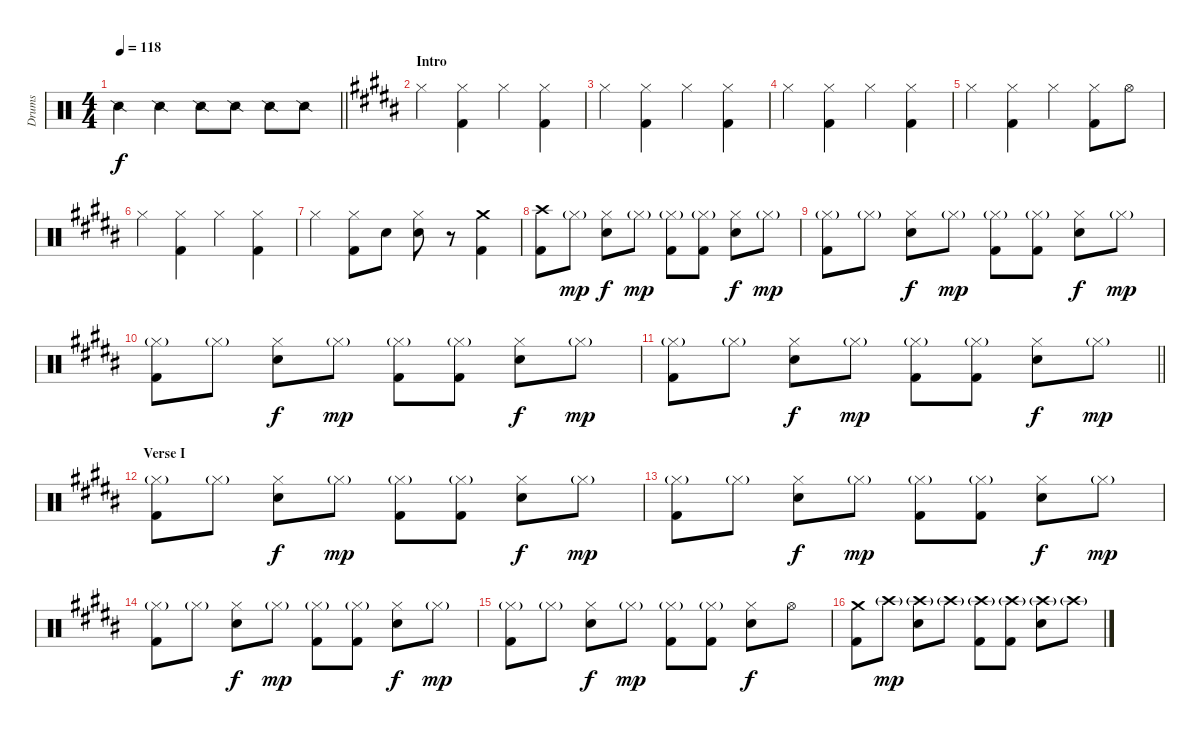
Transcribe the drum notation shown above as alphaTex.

\track ("Drums" "Drums") {instrument percussion}
\staff {score}
\articulation defaults
\ts (4 4)
\tempo 118
\clef neutral
\barLineRight lightlight
\ks c "Snare (side stick) 2".4{dy f} "Snare (side stick) 2".4 "Snare (side stick) 2".8 "Snare (side stick) 2".8 "Snare (side stick) 2".8 "Snare (side stick) 2".8
|
\section ("" "Intro")
\ks b "Hi-Hat (closed)".4
("Hi-Hat (closed)" "Kick (hit) 2").4 "Hi-Hat (closed)".4 ("Hi-Hat (closed)" "Kick (hit) 2").4 |
"Hi-Hat (closed)".4 ("Hi-Hat (closed)" "Kick (hit) 2").4 "Hi-Hat (closed)".4 ("Hi-Hat (closed)" "Kick (hit) 2").4 |
"Hi-Hat (closed)".4 ("Hi-Hat (closed)" "Kick (hit) 2").4 "Hi-Hat (closed)".4 ("Hi-Hat (closed)" "Kick (hit) 2").4 |
"Hi-Hat (closed)".4 ("Hi-Hat (closed)" "Kick (hit) 2").4 "Hi-Hat (closed)".4 ("Hi-Hat (closed)" "Kick (hit) 2").8 "Hi-Hat (open)".8 |
"Hi-Hat (closed)".4 ("Hi-Hat (closed)" "Kick (hit) 2").4 "Hi-Hat (closed)".4 ("Hi-Hat (closed)" "Kick (hit) 2").4 |
"Hi-Hat (closed)".4 ("Hi-Hat (closed)" "Kick (hit) 2").8 "Snare (hit) 2".8 ("Hi-Hat (closed)" "Snare (hit) 2").8 r.8 ("Crash medium (hit)" "Kick (hit) 2").4 |
("Crash high (hit)" "Kick (hit) 2").8 "Hi-Hat (closed)"{g}.8{dy mp} ("Hi-Hat (closed)" "Snare (hit) 2").8{dy f} "Hi-Hat (closed)"{g}.8{dy mp} ("Hi-Hat (closed)"{g} "Kick (hit) 2").8 ("Hi-Hat (closed)"{g} "Kick (hit) 2").8 ("Hi-Hat (closed)" "Snare (hit) 2").8{dy f} "Hi-Hat (closed)"{g}.8{dy mp} |
("Hi-Hat (closed)"{g} "Kick (hit) 2").8 "Hi-Hat (closed)"{g}.8 ("Hi-Hat (closed)" "Snare (hit) 2").8{dy f} "Hi-Hat (closed)"{g}.8{dy mp} ("Hi-Hat (closed)"{g} "Kick (hit) 2").8 ("Hi-Hat (closed)"{g} "Kick (hit) 2").8 ("Hi-Hat (closed)" "Snare (hit) 2").8{dy f} "Hi-Hat (closed)"{g}.8{dy mp} |
("Hi-Hat (closed)"{g} "Kick (hit) 2").8 "Hi-Hat (closed)"{g}.8 ("Hi-Hat (closed)" "Snare (hit) 2").8{dy f} "Hi-Hat (closed)"{g}.8{dy mp} ("Hi-Hat (closed)"{g} "Kick (hit) 2").8 ("Hi-Hat (closed)"{g} "Kick (hit) 2").8 ("Hi-Hat (closed)" "Snare (hit) 2").8{dy f} "Hi-Hat (closed)"{g}.8{dy mp} |
\barLineRight lightlight
("Hi-Hat (closed)"{g} "Kick (hit) 2").8 "Hi-Hat (closed)"{g}.8 ("Hi-Hat (closed)" "Snare (hit) 2").8{dy f} "Hi-Hat (closed)"{g}.8{dy mp} ("Hi-Hat (closed)"{g} "Kick (hit) 2").8 ("Hi-Hat (closed)"{g} "Kick (hit) 2").8 ("Hi-Hat (closed)" "Snare (hit) 2").8{dy f} "Hi-Hat (closed)"{g}.8{dy mp} |
\section ("" "Verse I")
("Hi-Hat (closed)"{g} "Kick (hit) 2").8 "Hi-Hat (closed)"{g}.8 ("Hi-Hat (closed)" "Snare (hit) 2").8{dy f} "Hi-Hat (closed)"{g}.8{dy mp} ("Hi-Hat (closed)"{g} "Kick (hit) 2").8 ("Hi-Hat (closed)"{g} "Kick (hit) 2").8 ("Hi-Hat (closed)" "Snare (hit) 2").8{dy f} "Hi-Hat (closed)"{g}.8{dy mp} |
("Hi-Hat (closed)"{g} "Kick (hit) 2").8 "Hi-Hat (closed)"{g}.8 ("Hi-Hat (closed)" "Snare (hit) 2").8{dy f} "Hi-Hat (closed)"{g}.8{dy mp} ("Hi-Hat (closed)"{g} "Kick (hit) 2").8 ("Hi-Hat (closed)"{g} "Kick (hit) 2").8 ("Hi-Hat (closed)" "Snare (hit) 2").8{dy f} "Hi-Hat (closed)"{g}.8{dy mp} |
("Hi-Hat (closed)"{g} "Kick (hit) 2").8 "Hi-Hat (closed)"{g}.8 ("Hi-Hat (closed)" "Snare (hit) 2").8{dy f} "Hi-Hat (closed)"{g}.8{dy mp} ("Hi-Hat (closed)"{g} "Kick (hit) 2").8 ("Hi-Hat (closed)"{g} "Kick (hit) 2").8 ("Hi-Hat (closed)" "Snare (hit) 2").8{dy f} "Hi-Hat (closed)"{g}.8{dy mp} |
("Hi-Hat (closed)"{g} "Kick (hit) 2").8 "Hi-Hat (closed)"{g}.8 ("Hi-Hat (closed)" "Snare (hit) 2").8{dy f} "Hi-Hat (closed)"{g}.8{dy mp} ("Hi-Hat (closed)"{g} "Kick (hit) 2").8 ("Hi-Hat (closed)"{g} "Kick (hit) 2").8 ("Hi-Hat (closed)" "Snare (hit) 2").8{dy f} "Hi-Hat (open)".8 |
("Crash medium (hit)" "Kick (hit) 2").8 "Crash high (hit)"{g}.8{dy mp} ("Crash high (hit)"{g} "Snare (hit) 2").8 "Crash high (hit)"{g}.8 ("Crash high (hit)"{g} "Kick (hit) 2").8 ("Crash high (hit)"{g} "Kick (hit) 2").8 ("Crash high (hit)"{g} "Snare (hit) 2").8 "Crash high (hit)"{g}.8
